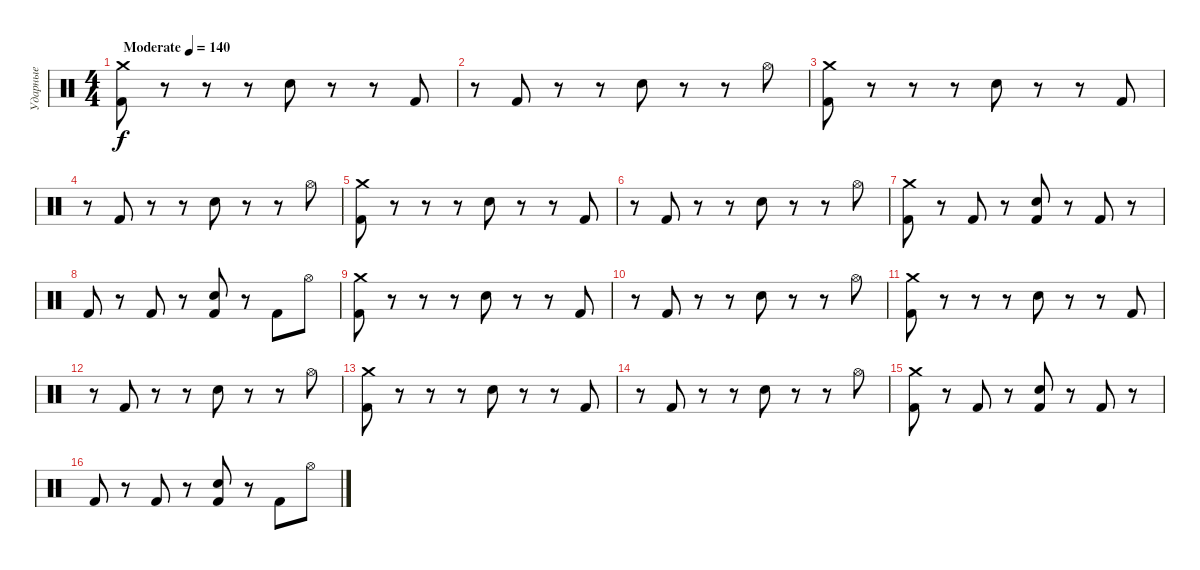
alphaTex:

\track ("Ударные" "Ударные") {instrument percussion}
\staff {score}
\articulation defaults
\ts (4 4)
\tempo (140 "Moderate")
\clef neutral
\ks c
("Crash medium (hit)" "Kick (hit) 2").8{dy f} r.8 r.8 r.8 "Snare (hit) 2".8 r.8 r.8 "Kick (hit) 2".8 |
r.8 "Kick (hit) 2".8 r.8 r.8 "Snare (hit) 2".8 r.8 r.8 "Hi-Hat (open)".8 |
("Crash medium (hit)" "Kick (hit) 2").8 r.8 r.8 r.8 "Snare (hit) 2".8 r.8 r.8 "Kick (hit) 2".8 |
r.8 "Kick (hit) 2".8 r.8 r.8 "Snare (hit) 2".8 r.8 r.8 "Hi-Hat (open)".8 |
("Crash medium (hit)" "Kick (hit) 2").8 r.8 r.8 r.8 "Snare (hit) 2".8 r.8 r.8 "Kick (hit) 2".8 |
r.8 "Kick (hit) 2".8 r.8 r.8 "Snare (hit) 2".8 r.8 r.8 "Hi-Hat (open)".8 |
("Crash medium (hit)" "Kick (hit) 2").8 r.8 "Kick (hit) 2".8 r.8 ("Snare (hit) 2" "Kick (hit) 2").8 r.8 "Kick (hit) 2".8 r.8 |
"Kick (hit) 2".8 r.8 "Kick (hit) 2".8 r.8 ("Snare (hit) 2" "Kick (hit) 2").8 r.8 "Kick (hit) 2".8 "Hi-Hat (open)".8 |
("Crash medium (hit)" "Kick (hit) 2").8 r.8 r.8 r.8 "Snare (hit) 2".8 r.8 r.8 "Kick (hit) 2".8 |
r.8 "Kick (hit) 2".8 r.8 r.8 "Snare (hit) 2".8 r.8 r.8 "Hi-Hat (open)".8 |
("Crash medium (hit)" "Kick (hit) 2").8 r.8 r.8 r.8 "Snare (hit) 2".8 r.8 r.8 "Kick (hit) 2".8 |
r.8 "Kick (hit) 2".8 r.8 r.8 "Snare (hit) 2".8 r.8 r.8 "Hi-Hat (open)".8 |
("Crash medium (hit)" "Kick (hit) 2").8 r.8 r.8 r.8 "Snare (hit) 2".8 r.8 r.8 "Kick (hit) 2".8 |
r.8 "Kick (hit) 2".8 r.8 r.8 "Snare (hit) 2".8 r.8 r.8 "Hi-Hat (open)".8 |
("Crash medium (hit)" "Kick (hit) 2").8 r.8 "Kick (hit) 2".8 r.8 ("Snare (hit) 2" "Kick (hit) 2").8 r.8 "Kick (hit) 2".8 r.8 |
"Kick (hit) 2".8 r.8 "Kick (hit) 2".8 r.8 ("Snare (hit) 2" "Kick (hit) 2").8 r.8 "Kick (hit) 2".8 "Hi-Hat (open)".8
